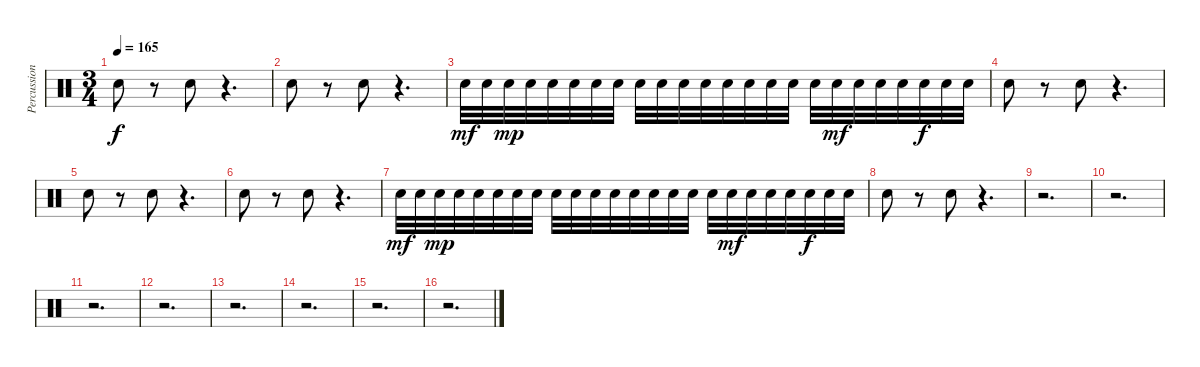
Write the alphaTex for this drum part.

\track ("Percussion" "Percussion") {instrument percussion}
\staff {score}
\articulation defaults
\ts (3 4)
\tempo 165
\clef neutral
\ks c "Electric Snare (hit)".8{dy f}
r.8 "Electric Snare (hit)".8 r.4{d} |
"Electric Snare (hit)".8 r.8 "Electric Snare (hit)".8 r.4{d} |
"Electric Snare (hit)".32{dy mf} "Electric Snare (hit)".32 "Electric Snare (hit)".32{dy mp} "Electric Snare (hit)".32 "Electric Snare (hit)".32 "Electric Snare (hit)".32 "Electric Snare (hit)".32 "Electric Snare (hit)".32 "Electric Snare (hit)".32 "Electric Snare (hit)".32 "Electric Snare (hit)".32 "Electric Snare (hit)".32 "Electric Snare (hit)".32 "Electric Snare (hit)".32 "Electric Snare (hit)".32 "Electric Snare (hit)".32 "Electric Snare (hit)".32 "Electric Snare (hit)".32{dy mf} "Electric Snare (hit)".32 "Electric Snare (hit)".32 "Electric Snare (hit)".32 "Electric Snare (hit)".32{dy f} "Electric Snare (hit)".32 "Electric Snare (hit)".32 |
"Electric Snare (hit)".8 r.8 "Electric Snare (hit)".8 r.4{d} |
"Electric Snare (hit)".8 r.8 "Electric Snare (hit)".8 r.4{d} |
"Electric Snare (hit)".8 r.8 "Electric Snare (hit)".8 r.4{d} |
"Electric Snare (hit)".32{dy mf} "Electric Snare (hit)".32 "Electric Snare (hit)".32{dy mp} "Electric Snare (hit)".32 "Electric Snare (hit)".32 "Electric Snare (hit)".32 "Electric Snare (hit)".32 "Electric Snare (hit)".32 "Electric Snare (hit)".32 "Electric Snare (hit)".32 "Electric Snare (hit)".32 "Electric Snare (hit)".32 "Electric Snare (hit)".32 "Electric Snare (hit)".32 "Electric Snare (hit)".32 "Electric Snare (hit)".32 "Electric Snare (hit)".32 "Electric Snare (hit)".32{dy mf} "Electric Snare (hit)".32 "Electric Snare (hit)".32 "Electric Snare (hit)".32 "Electric Snare (hit)".32{dy f} "Electric Snare (hit)".32 "Electric Snare (hit)".32 |
"Electric Snare (hit)".8 r.8 "Electric Snare (hit)".8 r.4{d} |
r.2{d} |
r.2{d} |
r.2{d} |
r.2{d} |
r.2{d} |
r.2{d} |
r.2{d} |
r.2{d}
